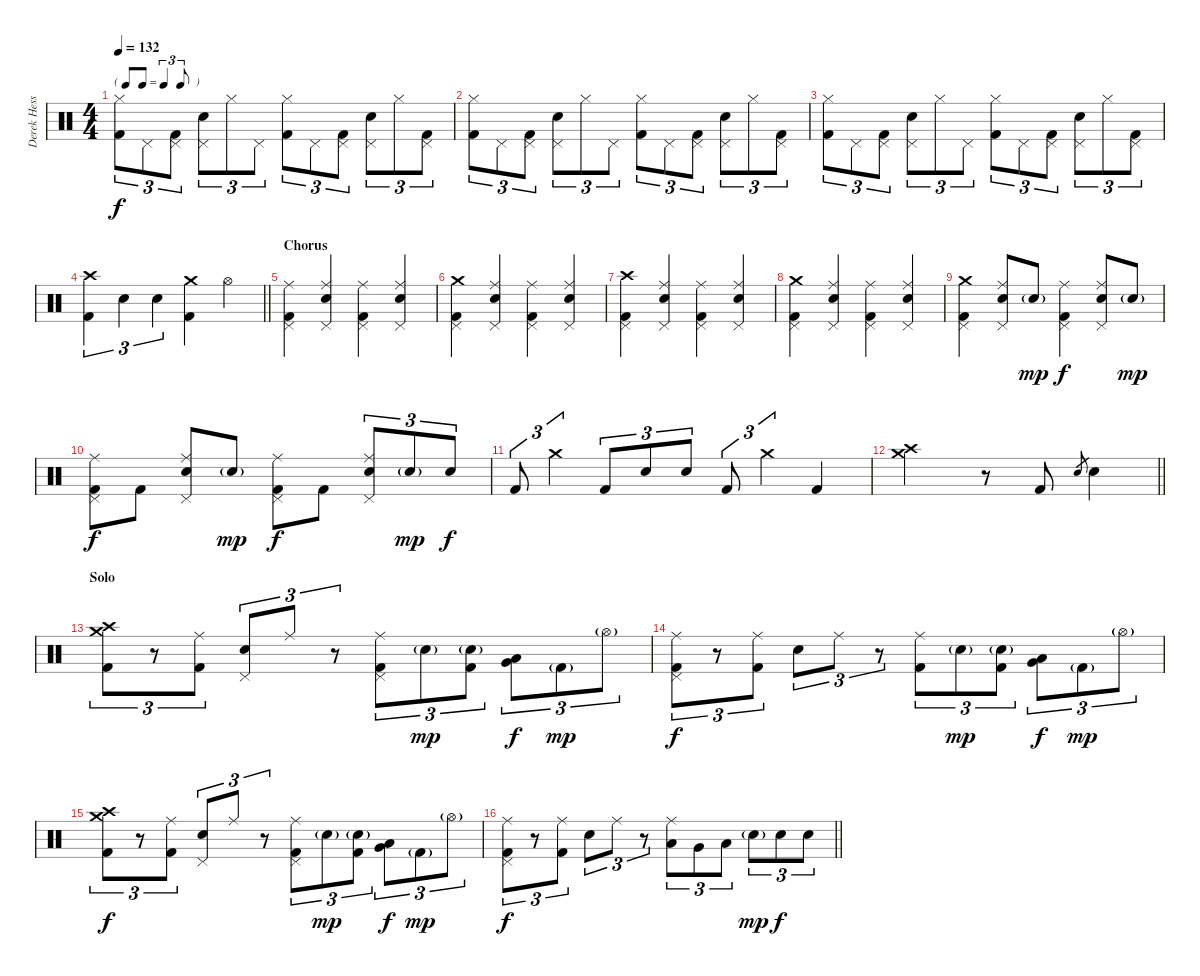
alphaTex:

\track ("Derek Hess (Drums and Percussion)" "Derek Hess") {instrument percussion}
\staff {score}
\articulation defaults
\ts (4 4)
\tf triplet8th
\tempo 132
\clef neutral
\ks c
("Hi-Hat (closed)" "Kick (hit) 2").8{tu (3 2) dy f} "Pedal Hi-Hat (hit)".8{tu (3 2)} ("Pedal Hi-Hat (hit)" "Kick (hit) 2").8{tu (3 2)} ("Snare (hit) 2" "Pedal Hi-Hat (hit)").8{tu (3 2)} "Hi-Hat (closed)".8{tu (3 2)} "Pedal Hi-Hat (hit)".8{tu (3 2)} ("Hi-Hat (closed)" "Kick (hit) 2").8{tu (3 2)} "Pedal Hi-Hat (hit)".8{tu (3 2)} ("Pedal Hi-Hat (hit)" "Kick (hit) 2").8{tu (3 2)} ("Snare (hit) 2" "Pedal Hi-Hat (hit)").8{tu (3 2)} "Hi-Hat (closed)".8{tu (3 2)} ("Pedal Hi-Hat (hit)" "Kick (hit) 2").8{tu (3 2)} |
("Hi-Hat (closed)" "Kick (hit) 2").8{tu (3 2)} "Pedal Hi-Hat (hit)".8{tu (3 2)} ("Pedal Hi-Hat (hit)" "Kick (hit) 2").8{tu (3 2)} ("Snare (hit) 2" "Pedal Hi-Hat (hit)").8{tu (3 2)} "Hi-Hat (closed)".8{tu (3 2)} "Pedal Hi-Hat (hit)".8{tu (3 2)} ("Hi-Hat (closed)" "Kick (hit) 2").8{tu (3 2)} "Pedal Hi-Hat (hit)".8{tu (3 2)} ("Pedal Hi-Hat (hit)" "Kick (hit) 2").8{tu (3 2)} ("Snare (hit) 2" "Pedal Hi-Hat (hit)").8{tu (3 2)} "Hi-Hat (closed)".8{tu (3 2)} ("Pedal Hi-Hat (hit)" "Kick (hit) 2").8{tu (3 2)} |
("Hi-Hat (closed)" "Kick (hit) 2").8{tu (3 2)} "Pedal Hi-Hat (hit)".8{tu (3 2)} ("Pedal Hi-Hat (hit)" "Kick (hit) 2").8{tu (3 2)} ("Snare (hit) 2" "Pedal Hi-Hat (hit)").8{tu (3 2)} "Hi-Hat (closed)".8{tu (3 2)} "Pedal Hi-Hat (hit)".8{tu (3 2)} ("Hi-Hat (closed)" "Kick (hit) 2").8{tu (3 2)} "Pedal Hi-Hat (hit)".8{tu (3 2)} ("Pedal Hi-Hat (hit)" "Kick (hit) 2").8{tu (3 2)} ("Snare (hit) 2" "Pedal Hi-Hat (hit)").8{tu (3 2)} "Hi-Hat (closed)".8{tu (3 2)} ("Pedal Hi-Hat (hit)" "Kick (hit) 2").8{tu (3 2)} |
\barLineRight lightlight
("Crash high (hit)" "Kick (hit) 2").4{tu (3 2)} "Snare (hit) 2".4{tu (3 2)} "Snare (hit) 2".4{tu (3 2)} ("Crash medium (hit)" "Kick (hit) 2").4 "Hi-Hat (open)".4 |
\section ("" "Chorus")
("Ride (middle)" "Pedal Hi-Hat (hit)" "Kick (hit) 2").4 ("Ride (middle)" "Snare (hit) 2" "Pedal Hi-Hat (hit)").4 ("Ride (middle)" "Pedal Hi-Hat (hit)" "Kick (hit) 2").4 ("Ride (middle)" "Snare (hit) 2" "Pedal Hi-Hat (hit)").4 |
("Crash medium (hit)" "Pedal Hi-Hat (hit)" "Kick (hit) 2").4 ("Ride (middle)" "Snare (hit) 2" "Pedal Hi-Hat (hit)").4 ("Ride (middle)" "Pedal Hi-Hat (hit)" "Kick (hit) 2").4 ("Ride (middle)" "Snare (hit) 2" "Pedal Hi-Hat (hit)").4 |
("Crash high (hit)" "Pedal Hi-Hat (hit)" "Kick (hit) 2").4 ("Ride (middle)" "Snare (hit) 2" "Pedal Hi-Hat (hit)").4 ("Ride (middle)" "Pedal Hi-Hat (hit)" "Kick (hit) 2").4 ("Ride (middle)" "Snare (hit) 2" "Pedal Hi-Hat (hit)").4 |
("Crash medium (hit)" "Pedal Hi-Hat (hit)" "Kick (hit) 2").4 ("Ride (middle)" "Snare (hit) 2" "Pedal Hi-Hat (hit)").4 ("Ride (middle)" "Pedal Hi-Hat (hit)" "Kick (hit) 2").4 ("Ride (middle)" "Snare (hit) 2" "Pedal Hi-Hat (hit)").4 |
("Crash medium (hit)" "Pedal Hi-Hat (hit)" "Kick (hit) 2").4 ("Ride (middle)" "Snare (hit) 2" "Pedal Hi-Hat (hit)").8 "Snare (hit) 2"{g}.8{dy mp} ("Ride (middle)" "Pedal Hi-Hat (hit)" "Kick (hit) 2").4{dy f} ("Ride (middle)" "Snare (hit) 2" "Pedal Hi-Hat (hit)").8 "Snare (hit) 2"{g}.8{dy mp} |
("Ride (middle)" "Pedal Hi-Hat (hit)" "Kick (hit) 2").8{dy f} "Kick (hit) 2".8 ("Ride (middle)" "Snare (hit) 2" "Pedal Hi-Hat (hit)").8 "Snare (hit) 2"{g}.8{dy mp} ("Ride (middle)" "Pedal Hi-Hat (hit)" "Kick (hit) 2").8{dy f} "Kick (hit) 2".8 ("Ride (middle)" "Snare (hit) 2" "Pedal Hi-Hat (hit)").8{tu (3 2)} "Snare (hit) 2"{g}.8{tu (3 2) dy mp} "Snare (hit) 2".8{tu (3 2) dy f} |
"Kick (hit) 2".8{tu (3 2)} "Crash medium (hit)".4{tu (3 2)} "Kick (hit) 2".8{tu (3 2)} "Snare (hit) 2".8{tu (3 2)} "Snare (hit) 2".8{tu (3 2)} "Kick (hit) 2".8{tu (3 2)} "Crash medium (hit)".4{tu (3 2)} "Kick (hit) 2".4 |
\barLineRight lightlight
("Crash medium (hit)" "Crash high (hit)").2 r.8 "Kick (hit) 2".8 "Snare (hit) 2".8{gr} "Snare (hit) 2".4 |
\section ("" "Solo")
("Crash high (hit)" "Crash medium (hit)" "Kick (hit) 2").8{tu (3 2)} r.8{tu (3 2)} ("Ride (middle)" "Kick (hit) 2").8{tu (3 2)} ("Snare (hit) 2" "Pedal Hi-Hat (hit)").8{tu (3 2)} "Ride (middle)".8{tu (3 2)} r.8{tu (3 2)} ("Ride (middle)" "Pedal Hi-Hat (hit)" "Kick (hit) 2").8{tu (3 2)} "Snare (hit) 2"{g}.8{tu (3 2) dy mp} ("Snare (hit) 2"{g} "Kick (hit) 2").8{tu (3 2)} ("Low Floor Tom (hit)" "Very Low Tom (hit)").8{tu (3 2) dy f} "Kick (hit) 2"{g}.8{tu (3 2) dy mp} "Hi-Hat (open)"{g}.8{tu (3 2)} |
("Ride (middle)" "Pedal Hi-Hat (hit)" "Kick (hit) 2").8{tu (3 2) dy f} r.8{tu (3 2)} ("Ride (middle)" "Kick (hit) 2").8{tu (3 2)} "Snare (hit) 2".8{tu (3 2)} "Ride (middle)".8{tu (3 2)} r.8{tu (3 2)} ("Ride (middle)" "Kick (hit) 2").8{tu (3 2)} "Snare (hit) 2"{g}.8{tu (3 2) dy mp} ("Snare (hit) 2"{g} "Kick (hit) 2").8{tu (3 2)} ("Low Floor Tom (hit)" "Very Low Tom (hit)").8{tu (3 2) dy f} "Kick (hit) 2"{g}.8{tu (3 2) dy mp} "Hi-Hat (open)"{g}.8{tu (3 2)} |
("Crash high (hit)" "Crash medium (hit)" "Kick (hit) 2").8{tu (3 2) dy f} r.8{tu (3 2)} ("Ride (middle)" "Kick (hit) 2").8{tu (3 2)} ("Snare (hit) 2" "Pedal Hi-Hat (hit)").8{tu (3 2)} "Ride (middle)".8{tu (3 2)} r.8{tu (3 2)} ("Ride (middle)" "Pedal Hi-Hat (hit)" "Kick (hit) 2").8{tu (3 2)} "Snare (hit) 2"{g}.8{tu (3 2) dy mp} ("Snare (hit) 2"{g} "Kick (hit) 2").8{tu (3 2)} ("Low Floor Tom (hit)" "Very Low Tom (hit)").8{tu (3 2) dy f} "Kick (hit) 2"{g}.8{tu (3 2) dy mp} "Hi-Hat (open)"{g}.8{tu (3 2)} |
\barLineRight lightlight
("Ride (middle)" "Pedal Hi-Hat (hit)" "Kick (hit) 2").8{tu (3 2) dy f} r.8{tu (3 2)} ("Ride (middle)" "Kick (hit) 2").8{tu (3 2)} "Snare (hit) 2".8{tu (3 2)} "Ride (middle)".8{tu (3 2)} r.8{tu (3 2)} ("Ride (middle)" "Low Tom (hit)").8{tu (3 2)} "Very Low Tom (hit)".8{tu (3 2)} "Low Floor Tom (hit)".8{tu (3 2)} "Snare (hit) 2"{g}.8{tu (3 2) dy mp} "Snare (hit) 2".8{tu (3 2) dy f} "Snare (hit) 2".8{tu (3 2)}
